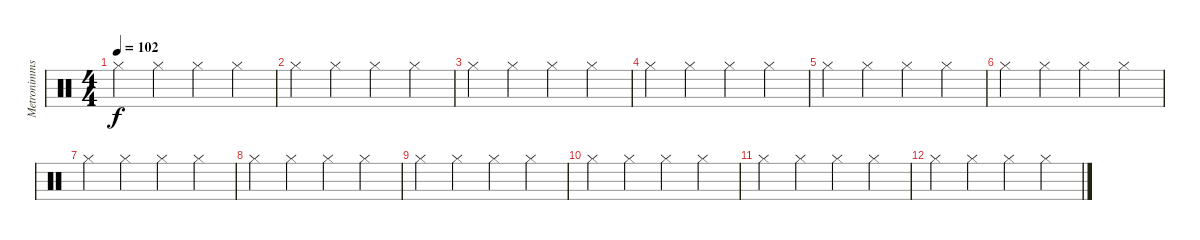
\track ("Metronimms" "Metronimms") {instrument percussion}
\staff {score}
\articulation defaults
\ts (4 4)
\tempo 102
\clef neutral
\ks c "Hi-Hat (closed)".4{dy f} "Hi-Hat (closed)".4 "Hi-Hat (closed)".4 "Hi-Hat (closed)".4
|
"Hi-Hat (closed)".4 "Hi-Hat (closed)".4 "Hi-Hat (closed)".4 "Hi-Hat (closed)".4 |
"Hi-Hat (closed)".4 "Hi-Hat (closed)".4 "Hi-Hat (closed)".4 "Hi-Hat (closed)".4 |
"Hi-Hat (closed)".4 "Hi-Hat (closed)".4 "Hi-Hat (closed)".4 "Hi-Hat (closed)".4 |
"Hi-Hat (closed)".4 "Hi-Hat (closed)".4 "Hi-Hat (closed)".4 "Hi-Hat (closed)".4 |
"Hi-Hat (closed)".4 "Hi-Hat (closed)".4 "Hi-Hat (closed)".4 "Hi-Hat (closed)".4 |
"Hi-Hat (closed)".4 "Hi-Hat (closed)".4 "Hi-Hat (closed)".4 "Hi-Hat (closed)".4 |
"Hi-Hat (closed)".4 "Hi-Hat (closed)".4 "Hi-Hat (closed)".4 "Hi-Hat (closed)".4 |
"Hi-Hat (closed)".4 "Hi-Hat (closed)".4 "Hi-Hat (closed)".4 "Hi-Hat (closed)".4 |
"Hi-Hat (closed)".4 "Hi-Hat (closed)".4 "Hi-Hat (closed)".4 "Hi-Hat (closed)".4 |
"Hi-Hat (closed)".4 "Hi-Hat (closed)".4 "Hi-Hat (closed)".4 "Hi-Hat (closed)".4 |
"Hi-Hat (closed)".4 "Hi-Hat (closed)".4 "Hi-Hat (closed)".4 "Hi-Hat (closed)".4
